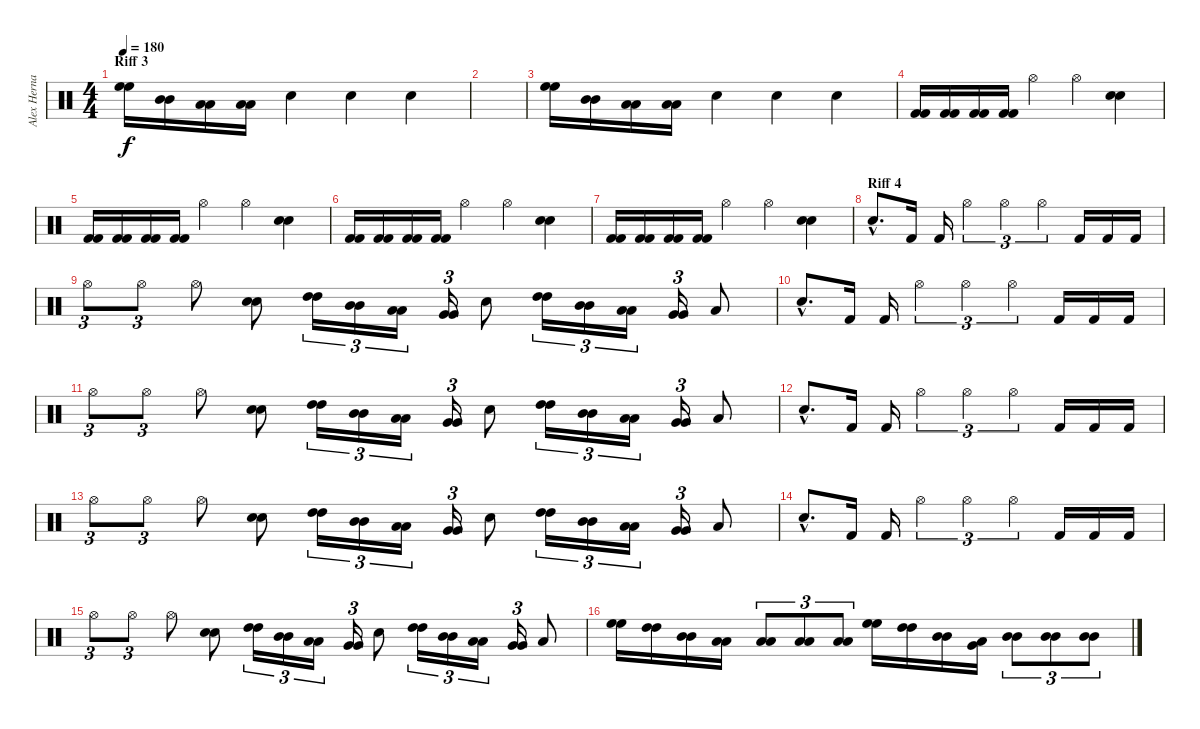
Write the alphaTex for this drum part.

\track ("Alex Hernandez" "Alex Herna") {instrument percussion}
\staff {score}
\articulation defaults
\ts (4 4)
\section ("" "Riff 3")
\tempo 180
\clef neutral
\ks c
("High Floor Tom (hit)" "High Floor Tom (hit)").16{dy f} ("Mid Tom (hit)" "Mid Tom (hit)").16 ("Low Tom (hit)" "Low Tom (hit)").16 ("Low Tom (hit)" "Low Floor Tom (hit)").16 "Snare (hit) 2".4 "Snare (hit) 2".4 "Snare (hit) 2".4 |
|
("High Floor Tom (hit)" "High Floor Tom (hit)").16 ("Mid Tom (hit)" "Mid Tom (hit)").16 ("Low Tom (hit)" "Low Tom (hit)").16 ("Low Floor Tom (hit)" "Low Floor Tom (hit)").16 "Snare (hit) 2".4 "Snare (hit) 2".4 "Snare (hit) 2".4 |
("Kick (hit) 2" "Kick (hit) 2").16 ("Kick (hit) 2" "Kick (hit) 2").16 ("Kick (hit) 2" "Kick (hit) 2").16 ("Kick (hit) 2" "Kick (hit) 2").16 "Hi-Hat (open)".4 "Hi-Hat (open)".4 ("Snare (hit) 2" "Snare (hit) 2").4 |
("Kick (hit) 2" "Kick (hit) 2").16 ("Kick (hit) 2" "Kick (hit) 2").16 ("Kick (hit) 2" "Kick (hit) 2").16 ("Kick (hit) 2" "Kick (hit) 2").16 "Hi-Hat (open)".4 "Hi-Hat (open)".4 ("Snare (hit) 2" "Snare (hit) 2").4 |
("Kick (hit) 2" "Kick (hit) 2").16 ("Kick (hit) 2" "Kick (hit) 2").16 ("Kick (hit) 2" "Kick (hit) 2").16 ("Kick (hit) 2" "Kick (hit) 2").16 "Hi-Hat (open)".4 "Hi-Hat (open)".4 ("Snare (hit) 2" "Snare (hit) 2").4 |
("Kick (hit) 2" "Kick (hit) 2").16 ("Kick (hit) 2" "Kick (hit) 2").16 ("Kick (hit) 2" "Kick (hit) 2").16 ("Kick (hit) 2" "Kick (hit) 2").16 "Hi-Hat (open)".4 "Hi-Hat (open)".4 ("Snare (hit) 2" "Snare (hit) 2").4 |
\section ("" "Riff 4")
"Snare (hit) 2"{hac}.8{d} "Kick (hit) 2".16 "Kick (hit) 2".16 "Hi-Hat (open)".4{tu (3 2)} "Hi-Hat (open)".4{tu (3 2)} "Hi-Hat (open)".4{tu (3 2)} "Kick (hit) 2".16 "Kick (hit) 2".16 "Kick (hit) 2".16 |
"Hi-Hat (open)".8{tu (3 2)} "Hi-Hat (open)".8{tu (3 2)} "Hi-Hat (open)".8 ("Snare (hit) 2" "Snare (hit) 2").8 ("High Tom (hit)" "High Tom (hit)").16{tu (3 2)} ("Mid Tom (hit)" "Mid Tom (hit)").16{tu (3 2)} ("Low Tom (hit)" "Low Tom (hit)").16{tu (3 2)} ("Very Low Tom (hit)" "Very Low Tom (hit)").16{tu (3 2)} "Snare (hit) 2".8 ("High Tom (hit)" "High Tom (hit)").16{tu (3 2)} ("Mid Tom (hit)" "Mid Tom (hit)").16{tu (3 2)} ("Low Tom (hit)" "Low Tom (hit)").16{tu (3 2)} ("Very Low Tom (hit)" "Very Low Tom (hit)").16{tu (3 2)} "Low Tom (hit)".8 |
"Snare (hit) 2"{hac}.8{d} "Kick (hit) 2".16 "Kick (hit) 2".16 "Hi-Hat (open)".4{tu (3 2)} "Hi-Hat (open)".4{tu (3 2)} "Hi-Hat (open)".4{tu (3 2)} "Kick (hit) 2".16 "Kick (hit) 2".16 "Kick (hit) 2".16 |
"Hi-Hat (open)".8{tu (3 2)} "Hi-Hat (open)".8{tu (3 2)} "Hi-Hat (open)".8 ("Snare (hit) 2" "Snare (hit) 2").8 ("High Tom (hit)" "High Tom (hit)").16{tu (3 2)} ("Mid Tom (hit)" "Mid Tom (hit)").16{tu (3 2)} ("Low Tom (hit)" "Low Tom (hit)").16{tu (3 2)} ("Very Low Tom (hit)" "Very Low Tom (hit)").16{tu (3 2)} "Snare (hit) 2".8 ("High Tom (hit)" "High Tom (hit)").16{tu (3 2)} ("Mid Tom (hit)" "Mid Tom (hit)").16{tu (3 2)} ("Low Tom (hit)" "Low Tom (hit)").16{tu (3 2)} ("Very Low Tom (hit)" "Very Low Tom (hit)").16{tu (3 2)} "Low Tom (hit)".8 |
"Snare (hit) 2"{hac}.8{d} "Kick (hit) 2".16 "Kick (hit) 2".16 "Hi-Hat (open)".4{tu (3 2)} "Hi-Hat (open)".4{tu (3 2)} "Hi-Hat (open)".4{tu (3 2)} "Kick (hit) 2".16 "Kick (hit) 2".16 "Kick (hit) 2".16 |
"Hi-Hat (open)".8{tu (3 2)} "Hi-Hat (open)".8{tu (3 2)} "Hi-Hat (open)".8 ("Snare (hit) 2" "Snare (hit) 2").8 ("High Tom (hit)" "High Tom (hit)").16{tu (3 2)} ("Mid Tom (hit)" "Mid Tom (hit)").16{tu (3 2)} ("Low Tom (hit)" "Low Tom (hit)").16{tu (3 2)} ("Very Low Tom (hit)" "Very Low Tom (hit)").16{tu (3 2)} "Snare (hit) 2".8 ("High Tom (hit)" "High Tom (hit)").16{tu (3 2)} ("Mid Tom (hit)" "Mid Tom (hit)").16{tu (3 2)} ("Low Tom (hit)" "Low Tom (hit)").16{tu (3 2)} ("Very Low Tom (hit)" "Very Low Tom (hit)").16{tu (3 2)} "Low Tom (hit)".8 |
"Snare (hit) 2"{hac}.8{d} "Kick (hit) 2".16 "Kick (hit) 2".16 "Hi-Hat (open)".4{tu (3 2)} "Hi-Hat (open)".4{tu (3 2)} "Hi-Hat (open)".4{tu (3 2)} "Kick (hit) 2".16 "Kick (hit) 2".16 "Kick (hit) 2".16 |
"Hi-Hat (open)".8{tu (3 2)} "Hi-Hat (open)".8{tu (3 2)} "Hi-Hat (open)".8 ("Snare (hit) 2" "Snare (hit) 2").8 ("High Tom (hit)" "High Tom (hit)").16{tu (3 2)} ("Mid Tom (hit)" "Mid Tom (hit)").16{tu (3 2)} ("Low Tom (hit)" "Low Tom (hit)").16{tu (3 2)} ("Very Low Tom (hit)" "Very Low Tom (hit)").16{tu (3 2)} "Snare (hit) 2".8 ("High Tom (hit)" "High Tom (hit)").16{tu (3 2)} ("Mid Tom (hit)" "Mid Tom (hit)").16{tu (3 2)} ("Low Tom (hit)" "Low Tom (hit)").16{tu (3 2)} ("Very Low Tom (hit)" "Very Low Tom (hit)").16{tu (3 2)} "Low Tom (hit)".8 |
("High Floor Tom (hit)" "High Floor Tom (hit)").16 ("High Tom (hit)" "High Tom (hit)").16 ("Mid Tom (hit)" "Mid Tom (hit)").16 ("Low Tom (hit)" "Low Tom (hit)").16 ("Low Tom (hit)" "Low Tom (hit)").8{tu (3 2)} ("Low Tom (hit)" "Low Tom (hit)").8{tu (3 2)} ("Low Tom (hit)" "Low Tom (hit)").8{tu (3 2)} ("High Floor Tom (hit)" "High Floor Tom (hit)").16 ("High Tom (hit)" "High Tom (hit)").16 ("Mid Tom (hit)" "Mid Tom (hit)").16 ("Very Low Tom (hit)" "Low Tom (hit)").16 ("Mid Tom (hit)" "Mid Tom (hit)").8{tu (3 2)} ("Mid Tom (hit)" "Mid Tom (hit)").8{tu (3 2)} ("Mid Tom (hit)" "Mid Tom (hit)").8{tu (3 2)}
